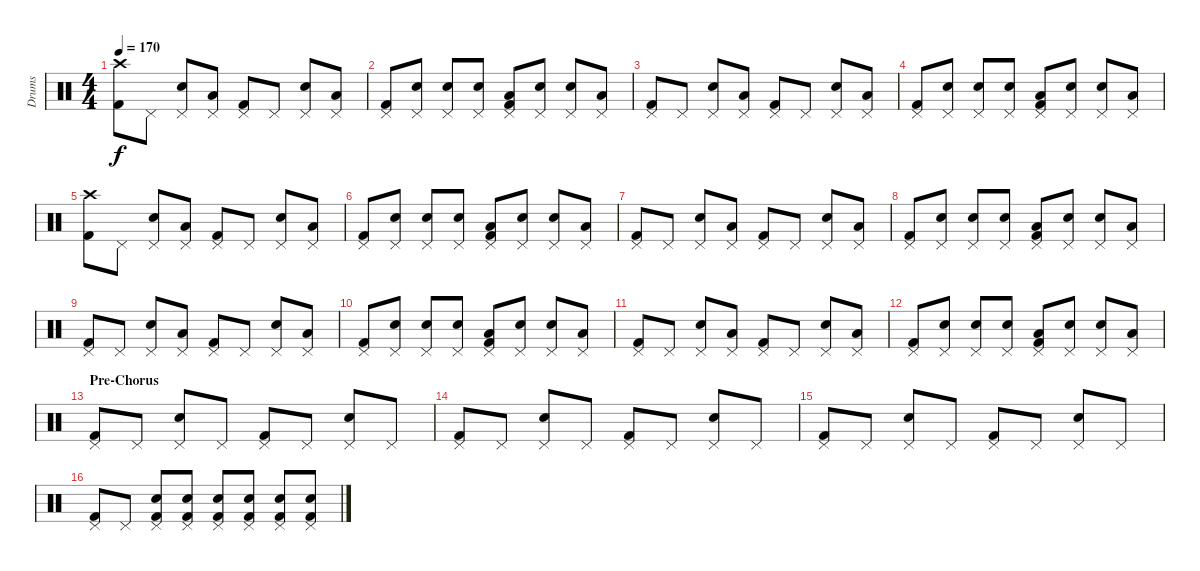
\track ("Drums" "Drums") {instrument percussion}
\staff {score}
\articulation defaults
\ts (4 4)
\tempo 170
\clef neutral
\ks c
("Crash high (hit)" "Kick (hit) 2").8{dy f} "Pedal Hi-Hat (hit)".8 ("Pedal Hi-Hat (hit)" "Electric Snare (hit)").8 ("Pedal Hi-Hat (hit)" "Low Tom (hit)").8 ("Pedal Hi-Hat (hit)" "Kick (hit) 2").8 "Pedal Hi-Hat (hit)".8 ("Pedal Hi-Hat (hit)" "Electric Snare (hit)").8 ("Pedal Hi-Hat (hit)" "Low Tom (hit)").8 |
("Pedal Hi-Hat (hit)" "Kick (hit) 2").8 ("Pedal Hi-Hat (hit)" "Electric Snare (hit)").8 ("Pedal Hi-Hat (hit)" "Electric Snare (hit)").8 ("Pedal Hi-Hat (hit)" "Electric Snare (hit)").8 ("Pedal Hi-Hat (hit)" "Low Tom (hit)" "Kick (hit) 2").8 ("Pedal Hi-Hat (hit)" "Electric Snare (hit)").8 ("Pedal Hi-Hat (hit)" "Electric Snare (hit)").8 ("Pedal Hi-Hat (hit)" "Low Tom (hit)").8 |
("Pedal Hi-Hat (hit)" "Kick (hit) 2").8 "Pedal Hi-Hat (hit)".8 ("Pedal Hi-Hat (hit)" "Electric Snare (hit)").8 ("Pedal Hi-Hat (hit)" "Low Tom (hit)").8 ("Pedal Hi-Hat (hit)" "Kick (hit) 2").8 "Pedal Hi-Hat (hit)".8 ("Pedal Hi-Hat (hit)" "Electric Snare (hit)").8 ("Pedal Hi-Hat (hit)" "Low Tom (hit)").8 |
("Pedal Hi-Hat (hit)" "Kick (hit) 2").8 ("Pedal Hi-Hat (hit)" "Electric Snare (hit)").8 ("Pedal Hi-Hat (hit)" "Electric Snare (hit)").8 ("Pedal Hi-Hat (hit)" "Electric Snare (hit)").8 ("Pedal Hi-Hat (hit)" "Low Tom (hit)" "Kick (hit) 2").8 ("Pedal Hi-Hat (hit)" "Electric Snare (hit)").8 ("Pedal Hi-Hat (hit)" "Electric Snare (hit)").8 ("Pedal Hi-Hat (hit)" "Low Tom (hit)").8 |
("Crash high (hit)" "Kick (hit) 2").8 "Pedal Hi-Hat (hit)".8 ("Pedal Hi-Hat (hit)" "Electric Snare (hit)").8 ("Pedal Hi-Hat (hit)" "Low Tom (hit)").8 ("Pedal Hi-Hat (hit)" "Kick (hit) 2").8 "Pedal Hi-Hat (hit)".8 ("Pedal Hi-Hat (hit)" "Electric Snare (hit)").8 ("Pedal Hi-Hat (hit)" "Low Tom (hit)").8 |
("Pedal Hi-Hat (hit)" "Kick (hit) 2").8 ("Pedal Hi-Hat (hit)" "Electric Snare (hit)").8 ("Pedal Hi-Hat (hit)" "Electric Snare (hit)").8 ("Pedal Hi-Hat (hit)" "Electric Snare (hit)").8 ("Pedal Hi-Hat (hit)" "Low Tom (hit)" "Kick (hit) 2").8 ("Pedal Hi-Hat (hit)" "Electric Snare (hit)").8 ("Pedal Hi-Hat (hit)" "Electric Snare (hit)").8 ("Pedal Hi-Hat (hit)" "Low Tom (hit)").8 |
("Pedal Hi-Hat (hit)" "Kick (hit) 2").8 "Pedal Hi-Hat (hit)".8 ("Pedal Hi-Hat (hit)" "Electric Snare (hit)").8 ("Pedal Hi-Hat (hit)" "Low Tom (hit)").8 ("Pedal Hi-Hat (hit)" "Kick (hit) 2").8 "Pedal Hi-Hat (hit)".8 ("Pedal Hi-Hat (hit)" "Electric Snare (hit)").8 ("Pedal Hi-Hat (hit)" "Low Tom (hit)").8 |
("Pedal Hi-Hat (hit)" "Kick (hit) 2").8 ("Pedal Hi-Hat (hit)" "Electric Snare (hit)").8 ("Pedal Hi-Hat (hit)" "Electric Snare (hit)").8 ("Pedal Hi-Hat (hit)" "Electric Snare (hit)").8 ("Pedal Hi-Hat (hit)" "Low Tom (hit)" "Kick (hit) 2").8 ("Pedal Hi-Hat (hit)" "Electric Snare (hit)").8 ("Pedal Hi-Hat (hit)" "Electric Snare (hit)").8 ("Pedal Hi-Hat (hit)" "Low Tom (hit)").8 |
("Pedal Hi-Hat (hit)" "Kick (hit) 2").8 "Pedal Hi-Hat (hit)".8 ("Pedal Hi-Hat (hit)" "Electric Snare (hit)").8 ("Pedal Hi-Hat (hit)" "Low Tom (hit)").8 ("Pedal Hi-Hat (hit)" "Kick (hit) 2").8 "Pedal Hi-Hat (hit)".8 ("Pedal Hi-Hat (hit)" "Electric Snare (hit)").8 ("Pedal Hi-Hat (hit)" "Low Tom (hit)").8 |
("Pedal Hi-Hat (hit)" "Kick (hit) 2").8 ("Pedal Hi-Hat (hit)" "Electric Snare (hit)").8 ("Pedal Hi-Hat (hit)" "Electric Snare (hit)").8 ("Pedal Hi-Hat (hit)" "Electric Snare (hit)").8 ("Pedal Hi-Hat (hit)" "Low Tom (hit)" "Kick (hit) 2").8 ("Pedal Hi-Hat (hit)" "Electric Snare (hit)").8 ("Pedal Hi-Hat (hit)" "Electric Snare (hit)").8 ("Pedal Hi-Hat (hit)" "Low Tom (hit)").8 |
("Pedal Hi-Hat (hit)" "Kick (hit) 2").8 "Pedal Hi-Hat (hit)".8 ("Pedal Hi-Hat (hit)" "Electric Snare (hit)").8 ("Pedal Hi-Hat (hit)" "Low Tom (hit)").8 ("Pedal Hi-Hat (hit)" "Kick (hit) 2").8 "Pedal Hi-Hat (hit)".8 ("Pedal Hi-Hat (hit)" "Electric Snare (hit)").8 ("Pedal Hi-Hat (hit)" "Low Tom (hit)").8 |
("Pedal Hi-Hat (hit)" "Kick (hit) 2").8 ("Pedal Hi-Hat (hit)" "Electric Snare (hit)").8 ("Pedal Hi-Hat (hit)" "Electric Snare (hit)").8 ("Pedal Hi-Hat (hit)" "Electric Snare (hit)").8 ("Pedal Hi-Hat (hit)" "Low Tom (hit)" "Kick (hit) 2").8 ("Pedal Hi-Hat (hit)" "Electric Snare (hit)").8 ("Pedal Hi-Hat (hit)" "Electric Snare (hit)").8 ("Pedal Hi-Hat (hit)" "Low Tom (hit)").8 |
\section ("" "Pre-Chorus")
("Pedal Hi-Hat (hit)" "Kick (hit) 2").8 "Pedal Hi-Hat (hit)".8 ("Pedal Hi-Hat (hit)" "Electric Snare (hit)").8 "Pedal Hi-Hat (hit)".8 ("Pedal Hi-Hat (hit)" "Kick (hit) 2").8 "Pedal Hi-Hat (hit)".8 ("Pedal Hi-Hat (hit)" "Electric Snare (hit)").8 "Pedal Hi-Hat (hit)".8 |
("Pedal Hi-Hat (hit)" "Kick (hit) 2").8 "Pedal Hi-Hat (hit)".8 ("Pedal Hi-Hat (hit)" "Electric Snare (hit)").8 "Pedal Hi-Hat (hit)".8 ("Pedal Hi-Hat (hit)" "Kick (hit) 2").8 "Pedal Hi-Hat (hit)".8 ("Pedal Hi-Hat (hit)" "Electric Snare (hit)").8 "Pedal Hi-Hat (hit)".8 |
("Pedal Hi-Hat (hit)" "Kick (hit) 2").8 "Pedal Hi-Hat (hit)".8 ("Pedal Hi-Hat (hit)" "Electric Snare (hit)").8 "Pedal Hi-Hat (hit)".8 ("Pedal Hi-Hat (hit)" "Kick (hit) 2").8 "Pedal Hi-Hat (hit)".8 ("Pedal Hi-Hat (hit)" "Electric Snare (hit)").8 "Pedal Hi-Hat (hit)".8 |
("Pedal Hi-Hat (hit)" "Kick (hit) 2").8 "Pedal Hi-Hat (hit)".8 ("Pedal Hi-Hat (hit)" "Electric Snare (hit)" "Kick (hit) 2").8 ("Pedal Hi-Hat (hit)" "Electric Snare (hit)" "Kick (hit) 2").8 ("Pedal Hi-Hat (hit)" "Electric Snare (hit)" "Kick (hit) 2").8 ("Pedal Hi-Hat (hit)" "Electric Snare (hit)" "Kick (hit) 2").8 ("Pedal Hi-Hat (hit)" "Electric Snare (hit)" "Kick (hit) 2").8 ("Pedal Hi-Hat (hit)" "Electric Snare (hit)" "Kick (hit) 2").8
